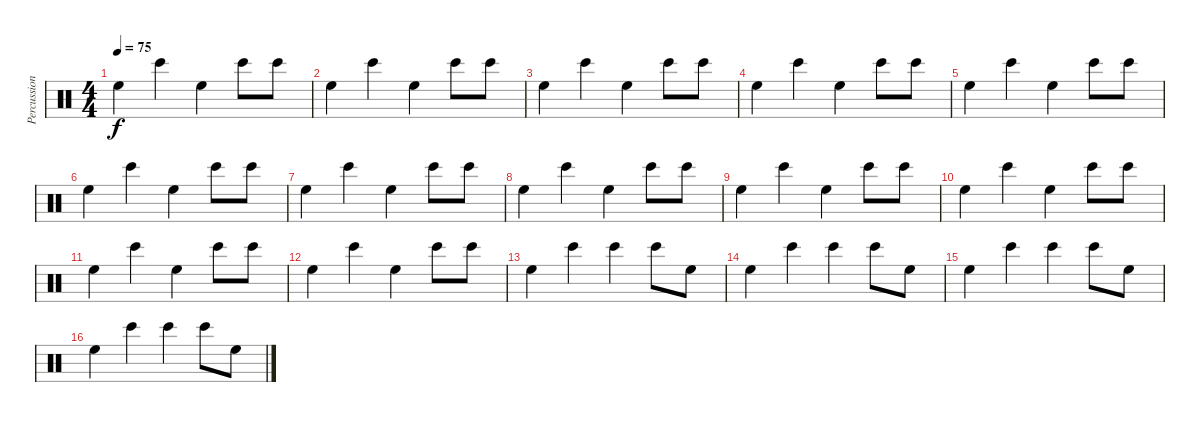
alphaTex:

\track ("Percussions" "Percussion") {instrument percussion}
\staff {score}
\articulation defaults
\ts (4 4)
\tempo 75
\clef neutral
\ks c "High Floor Tom (hit)".4{dy f} "Bongo High (hit)".4 "High Floor Tom (hit)".4 "Bongo High (hit)".8 "Bongo High (hit)".8
|
"High Floor Tom (hit)".4 "Bongo High (hit)".4 "High Floor Tom (hit)".4 "Bongo High (hit)".8 "Bongo High (hit)".8 |
"High Floor Tom (hit)".4 "Bongo High (hit)".4 "High Floor Tom (hit)".4 "Bongo High (hit)".8 "Bongo High (hit)".8 |
"High Floor Tom (hit)".4 "Bongo High (hit)".4 "High Floor Tom (hit)".4 "Bongo High (hit)".8 "Bongo High (hit)".8 |
"High Floor Tom (hit)".4 "Bongo High (hit)".4 "High Floor Tom (hit)".4 "Bongo High (hit)".8 "Bongo High (hit)".8 |
"High Floor Tom (hit)".4 "Bongo High (hit)".4 "High Floor Tom (hit)".4 "Bongo High (hit)".8 "Bongo High (hit)".8 |
"High Floor Tom (hit)".4 "Bongo High (hit)".4 "High Floor Tom (hit)".4 "Bongo High (hit)".8 "Bongo High (hit)".8 |
"High Floor Tom (hit)".4 "Bongo High (hit)".4 "High Floor Tom (hit)".4 "Bongo High (hit)".8 "Bongo High (hit)".8 |
"High Floor Tom (hit)".4 "Bongo High (hit)".4 "High Floor Tom (hit)".4 "Bongo High (hit)".8 "Bongo High (hit)".8 |
"High Floor Tom (hit)".4 "Bongo High (hit)".4 "High Floor Tom (hit)".4 "Bongo High (hit)".8 "Bongo High (hit)".8 |
"High Floor Tom (hit)".4 "Bongo High (hit)".4 "High Floor Tom (hit)".4 "Bongo High (hit)".8 "Bongo High (hit)".8 |
"High Floor Tom (hit)".4 "Bongo High (hit)".4 "High Floor Tom (hit)".4 "Bongo High (hit)".8 "Bongo High (hit)".8 |
"High Floor Tom (hit)".4 "Bongo High (hit)".4 "Bongo High (hit)".4 "Bongo High (hit)".8 "High Floor Tom (hit)".8 |
"High Floor Tom (hit)".4 "Bongo High (hit)".4 "Bongo High (hit)".4 "Bongo High (hit)".8 "High Floor Tom (hit)".8 |
"High Floor Tom (hit)".4 "Bongo High (hit)".4 "Bongo High (hit)".4 "Bongo High (hit)".8 "High Floor Tom (hit)".8 |
"High Floor Tom (hit)".4 "Bongo High (hit)".4 "Bongo High (hit)".4 "Bongo High (hit)".8 "High Floor Tom (hit)".8
